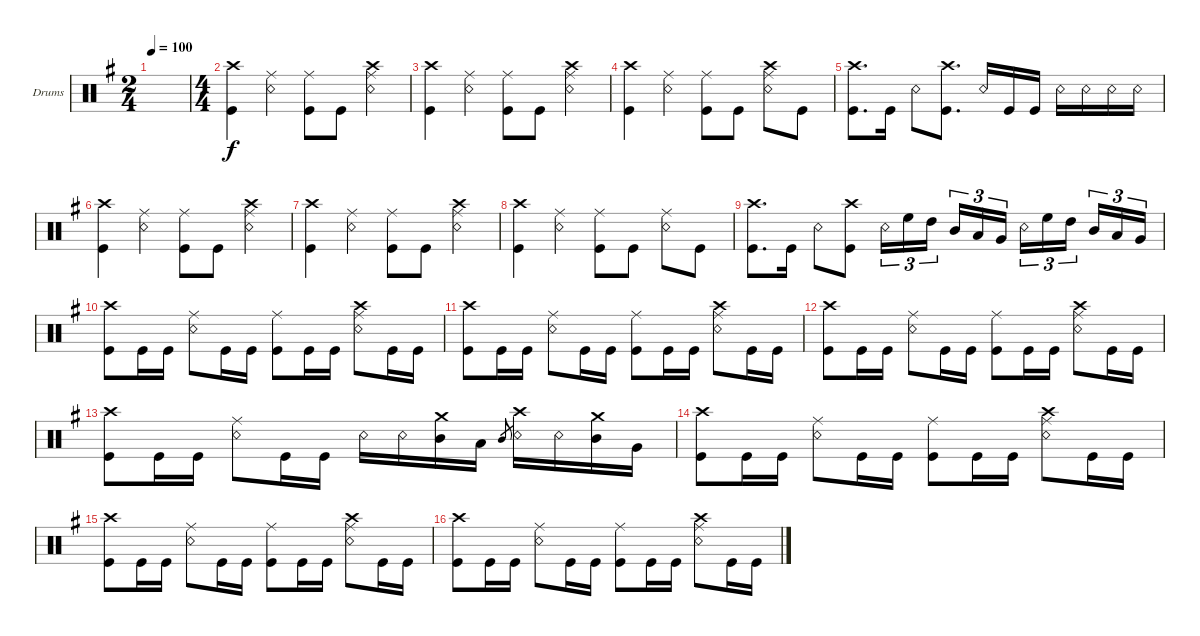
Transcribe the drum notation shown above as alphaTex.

\defaultSystemsLayout 4
\bracketExtendMode groupsimilarinstruments
\firstSystemTrackNameOrientation horizontal
\otherSystemsTrackNameOrientation horizontal
\track ("Drumkit" "Drums") {instrument percussion}
\staff {score}
\articulation defaults
\ts (2 4)
\tempo 100
\clef neutral
\ks eminor
|
\ts (4 4)
("Kick (hit)" "Crash high (hit)").4 ("Ride (middle)" "Snare (rim shot)").4 ("Kick (hit)" "Ride (middle)").8 "Kick (hit)".8 ("Ride (middle)" "Snare (rim shot)" "Crash high (hit)").4 |
("Kick (hit)" "Crash high (hit)").4 ("Ride (middle)" "Snare (rim shot)").4 ("Kick (hit)" "Ride (middle)").8 "Kick (hit)".8 ("Ride (middle)" "Snare (rim shot)" "Crash high (hit)").4 |
("Kick (hit)" "Crash high (hit)").4 ("Ride (middle)" "Snare (rim shot)").4 ("Kick (hit)" "Ride (middle)").8 "Kick (hit)".8 ("Ride (middle)" "Snare (rim shot)" "Crash high (hit)").8 "Kick (hit)".8 |
("Kick (hit)" "Crash high (hit)").8{d} "Kick (hit)".16 "Snare (rim shot)".8 ("Kick (hit)" "Crash high (hit)").8{d} "Snare (rim shot)".16 "Kick (hit)".16 "Kick (hit)".16 "Snare (rim shot)".16 "Snare (rim shot)".16 "Snare (rim shot)".16 "Snare (rim shot)".16 |
("Kick (hit)" "Crash high (hit)").4 ("Ride (middle)" "Snare (rim shot)").4 ("Kick (hit)" "Ride (middle)").8 "Kick (hit)".8 ("Ride (middle)" "Snare (rim shot)" "Crash high (hit)").4 |
("Kick (hit)" "Crash high (hit)").4 ("Ride (middle)" "Snare (rim shot)").4 ("Kick (hit)" "Ride (middle)").8 "Kick (hit)".8 ("Ride (middle)" "Snare (rim shot)" "Crash high (hit)").4 |
("Kick (hit)" "Crash high (hit)").4 ("Ride (middle)" "Snare (rim shot)").4 ("Kick (hit)" "Ride (middle)").8 "Kick (hit)".8 ("Ride (middle)" "Snare (rim shot)").8 "Kick (hit)".8 |
("Kick (hit)" "Crash high (hit)").8{d} "Kick (hit)".16 "Snare (rim shot)".8 ("Kick (hit)" "Crash high (hit)").8 "Snare (rim shot)".16{tu (3 2)} "High Floor Tom (hit)".16{tu (3 2)} "High Tom (hit)".16{tu (3 2)} "Mid Tom (hit)".16{tu (3 2)} "Low Tom (hit)".16{tu (3 2)} "Very Low Tom (hit)".16{tu (3 2)} "Snare (rim shot)".16{tu (3 2)} "High Floor Tom (hit)".16{tu (3 2)} "High Tom (hit)".16{tu (3 2)} "Mid Tom (hit)".16{tu (3 2)} "Low Tom (hit)".16{tu (3 2)} "Very Low Tom (hit)".16{tu (3 2)} |
("Kick (hit)" "Crash high (hit)").8 "Kick (hit)".16 "Kick (hit)".16 ("Ride (middle)" "Snare (rim shot)").8 "Kick (hit)".16 "Kick (hit)".16 ("Kick (hit)" "Ride (middle)").8 "Kick (hit)".16 "Kick (hit)".16 ("Ride (middle)" "Snare (rim shot)" "Crash high (hit)").8 "Kick (hit)".16 "Kick (hit)".16 |
("Kick (hit)" "Crash high (hit)").8 "Kick (hit)".16 "Kick (hit)".16 ("Ride (middle)" "Snare (rim shot)").8 "Kick (hit)".16 "Kick (hit)".16 ("Kick (hit)" "Ride (middle)").8 "Kick (hit)".16 "Kick (hit)".16 ("Ride (middle)" "Snare (rim shot)" "Crash high (hit)").8 "Kick (hit)".16 "Kick (hit)".16 |
("Kick (hit)" "Crash high (hit)").8 "Kick (hit)".16 "Kick (hit)".16 ("Ride (middle)" "Snare (rim shot)").8 "Kick (hit)".16 "Kick (hit)".16 ("Kick (hit)" "Ride (middle)").8 "Kick (hit)".16 "Kick (hit)".16 ("Ride (middle)" "Snare (rim shot)" "Crash high (hit)").8 "Kick (hit)".16 "Kick (hit)".16 |
("Kick (hit)" "Crash high (hit)").8 "Kick (hit)".16 "Kick (hit)".16 ("Ride (middle)" "Snare (rim shot)").8 "Kick (hit)".16 "Kick (hit)".16 "Snare (rim shot)".16 "Snare (rim shot)".16 ("Mid Tom (hit)" "Crash medium (hit)").16 "Low Tom (hit)".16 "Mid Tom (hit)".8{gr} ("Snare (rim shot)" "Crash high (hit)").16 "Snare (rim shot)".16 ("Mid Tom (hit)" "Crash medium (hit)").16 "Very Low Tom (hit)".16 |
("Kick (hit)" "Crash high (hit)").8 "Kick (hit)".16 "Kick (hit)".16 ("Ride (middle)" "Snare (rim shot)").8 "Kick (hit)".16 "Kick (hit)".16 ("Kick (hit)" "Ride (middle)").8 "Kick (hit)".16 "Kick (hit)".16 ("Ride (middle)" "Snare (rim shot)" "Crash high (hit)").8 "Kick (hit)".16 "Kick (hit)".16 |
("Kick (hit)" "Crash high (hit)").8 "Kick (hit)".16 "Kick (hit)".16 ("Ride (middle)" "Snare (rim shot)").8 "Kick (hit)".16 "Kick (hit)".16 ("Kick (hit)" "Ride (middle)").8 "Kick (hit)".16 "Kick (hit)".16 ("Ride (middle)" "Snare (rim shot)" "Crash high (hit)").8 "Kick (hit)".16 "Kick (hit)".16 |
("Kick (hit)" "Crash high (hit)").8 "Kick (hit)".16 "Kick (hit)".16 ("Ride (middle)" "Snare (rim shot)").8 "Kick (hit)".16 "Kick (hit)".16 ("Kick (hit)" "Ride (middle)").8 "Kick (hit)".16 "Kick (hit)".16 ("Ride (middle)" "Snare (rim shot)" "Crash high (hit)").8 "Kick (hit)".16 "Kick (hit)".16
